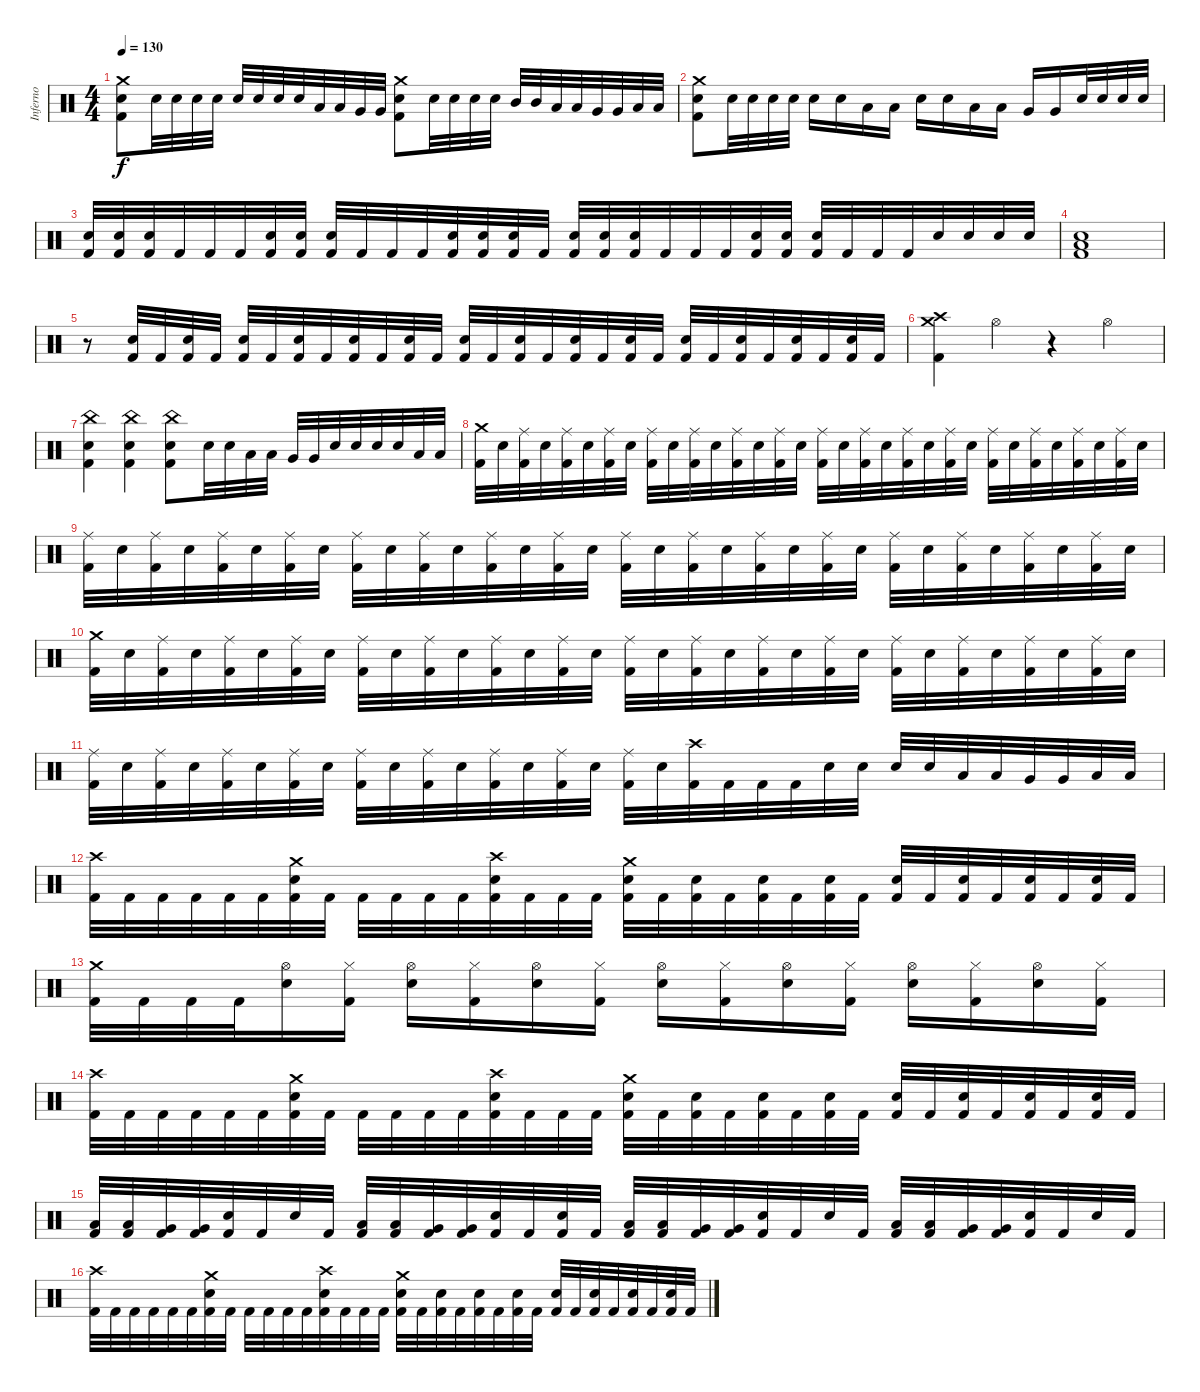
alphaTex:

\track ("Inferno" "Inferno") {instrument percussion}
\staff {score}
\articulation defaults
\ts (4 4)
\tempo 130
\clef neutral
\ks c
("Crash medium (hit)" "Snare (hit) 2" "Kick (hit) 2").8{dy f} "Snare (hit) 2".32 "Snare (hit) 2".32 "Snare (hit) 2".32 "Snare (hit) 2".32 "Snare (hit) 2".32 "Snare (hit) 2".32 "Snare (hit) 2".32 "Snare (hit) 2".32 "Low Tom (hit)".32 "Low Tom (hit)".32 "Very Low Tom (hit)".32 "Very Low Tom (hit)".32 ("Crash medium (hit)" "Snare (hit) 2" "Kick (hit) 2").8 "Snare (hit) 2".32 "Snare (hit) 2".32 "Snare (hit) 2".32 "Snare (hit) 2".32 "Mid Tom (hit)".32 "Mid Tom (hit)".32 "Low Tom (hit)".32 "Low Tom (hit)".32 "Very Low Tom (hit)".32 "Very Low Tom (hit)".32 "Low Floor Tom (hit)".32 "Low Floor Tom (hit)".32 |
("Crash medium (hit)" "Snare (hit) 2" "Kick (hit) 2").8 "Snare (hit) 2".32 "Snare (hit) 2".32 "Snare (hit) 2".32 "Snare (hit) 2".32 "Snare (hit) 2".16 "Snare (hit) 2".16 "Low Tom (hit)".16 "Low Tom (hit)".16 "Snare (hit) 2".16 "Snare (hit) 2".16 "Low Tom (hit)".16 "Low Tom (hit)".16 "Very Low Tom (hit)".16 "Very Low Tom (hit)".16 "Snare (hit) 2".32 "Snare (hit) 2".32 "Snare (hit) 2".32 "Snare (hit) 2".32 |
("Snare (hit) 2" "Kick (hit) 2").32 ("Snare (hit) 2" "Kick (hit) 2").32 ("Snare (hit) 2" "Kick (hit) 2").32 "Kick (hit) 2".32 "Kick (hit) 2".32 "Kick (hit) 2".32 ("Snare (hit) 2" "Kick (hit) 2").32 ("Snare (hit) 2" "Kick (hit) 2").32 ("Snare (hit) 2" "Kick (hit) 2").32 "Kick (hit) 2".32 "Kick (hit) 2".32 "Kick (hit) 2".32 ("Snare (hit) 2" "Kick (hit) 2").32 ("Snare (hit) 2" "Kick (hit) 2").32 ("Snare (hit) 2" "Kick (hit) 2").32 "Kick (hit) 2".32 ("Snare (hit) 2" "Kick (hit) 2").32 ("Snare (hit) 2" "Kick (hit) 2").32 ("Snare (hit) 2" "Kick (hit) 2").32 "Kick (hit) 2".32 "Kick (hit) 2".32 "Kick (hit) 2".32 ("Snare (hit) 2" "Kick (hit) 2").32 ("Snare (hit) 2" "Kick (hit) 2").32 ("Snare (hit) 2" "Kick (hit) 2").32 "Kick (hit) 2".32 "Kick (hit) 2".32 "Kick (hit) 2".32 "Snare (hit) 2".32 "Snare (hit) 2".32 "Snare (hit) 2".32 "Snare (hit) 2".32 |
("Low Floor Tom (hit)" "Snare (hit) 2" "Kick (hit) 2").1 |
r.8 ("Snare (hit) 2" "Kick (hit) 2").32 "Kick (hit) 2".32 ("Snare (hit) 2" "Kick (hit) 2").32 "Kick (hit) 2".32 ("Snare (hit) 2" "Kick (hit) 2").32 "Kick (hit) 2".32 ("Snare (hit) 2" "Kick (hit) 2").32 "Kick (hit) 2".32 ("Snare (hit) 2" "Kick (hit) 2").32 "Kick (hit) 2".32 ("Snare (hit) 2" "Kick (hit) 2").32 "Kick (hit) 2".32 ("Snare (hit) 2" "Kick (hit) 2").32 "Kick (hit) 2".32 ("Snare (hit) 2" "Kick (hit) 2").32 "Kick (hit) 2".32 ("Snare (hit) 2" "Kick (hit) 2").32 "Kick (hit) 2".32 ("Snare (hit) 2" "Kick (hit) 2").32 "Kick (hit) 2".32 ("Snare (hit) 2" "Kick (hit) 2").32 "Kick (hit) 2".32 ("Snare (hit) 2" "Kick (hit) 2").32 "Kick (hit) 2".32 ("Snare (hit) 2" "Kick (hit) 2").32 "Kick (hit) 2".32 ("Snare (hit) 2" "Kick (hit) 2").32 "Kick (hit) 2".32 |
("Crash high (hit)" "Crash medium (hit)" "Kick (hit) 2").4 "Hi-Hat (open)".4 r.4 "Hi-Hat (open)".4 |
("China (hit)" "Snare (hit) 2" "Kick (hit) 2").4 ("China (hit)" "Snare (hit) 2" "Kick (hit) 2").4 ("China (hit)" "Snare (hit) 2" "Kick (hit) 2").8 "Snare (hit) 2".32 "Snare (hit) 2".32 "Low Tom (hit)".32 "Low Tom (hit)".32 "Very Low Tom (hit)".32 "Very Low Tom (hit)".32 "Snare (hit) 2".32 "Snare (hit) 2".32 "Snare (hit) 2".32 "Snare (hit) 2".32 "Low Floor Tom (hit)".32 "Low Floor Tom (hit)".32 |
("Crash medium (hit)" "Kick (hit) 2").32 "Snare (hit) 2".32 ("Ride (middle)" "Kick (hit) 2").32 "Snare (hit) 2".32 ("Ride (middle)" "Kick (hit) 2").32 "Snare (hit) 2".32 ("Ride (middle)" "Kick (hit) 2").32 "Snare (hit) 2".32 ("Ride (middle)" "Kick (hit) 2").32 "Snare (hit) 2".32 ("Ride (middle)" "Kick (hit) 2").32 "Snare (hit) 2".32 ("Ride (middle)" "Kick (hit) 2").32 "Snare (hit) 2".32 ("Ride (middle)" "Kick (hit) 2").32 "Snare (hit) 2".32 ("Ride (middle)" "Kick (hit) 2").32 "Snare (hit) 2".32 ("Ride (middle)" "Kick (hit) 2").32 "Snare (hit) 2".32 ("Ride (middle)" "Kick (hit) 2").32 "Snare (hit) 2".32 ("Ride (middle)" "Kick (hit) 2").32 "Snare (hit) 2".32 ("Ride (middle)" "Kick (hit) 2").32 "Snare (hit) 2".32 ("Ride (middle)" "Kick (hit) 2").32 "Snare (hit) 2".32 ("Ride (middle)" "Kick (hit) 2").32 "Snare (hit) 2".32 ("Ride (middle)" "Kick (hit) 2").32 "Snare (hit) 2".32 |
("Ride (middle)" "Kick (hit) 2").32 "Snare (hit) 2".32 ("Ride (middle)" "Kick (hit) 2").32 "Snare (hit) 2".32 ("Ride (middle)" "Kick (hit) 2").32 "Snare (hit) 2".32 ("Ride (middle)" "Kick (hit) 2").32 "Snare (hit) 2".32 ("Ride (middle)" "Kick (hit) 2").32 "Snare (hit) 2".32 ("Ride (middle)" "Kick (hit) 2").32 "Snare (hit) 2".32 ("Ride (middle)" "Kick (hit) 2").32 "Snare (hit) 2".32 ("Ride (middle)" "Kick (hit) 2").32 "Snare (hit) 2".32 ("Ride (middle)" "Kick (hit) 2").32 "Snare (hit) 2".32 ("Ride (middle)" "Kick (hit) 2").32 "Snare (hit) 2".32 ("Ride (middle)" "Kick (hit) 2").32 "Snare (hit) 2".32 ("Ride (middle)" "Kick (hit) 2").32 "Snare (hit) 2".32 ("Ride (middle)" "Kick (hit) 2").32 "Snare (hit) 2".32 ("Ride (middle)" "Kick (hit) 2").32 "Snare (hit) 2".32 ("Ride (middle)" "Kick (hit) 2").32 "Snare (hit) 2".32 ("Ride (middle)" "Kick (hit) 2").32 "Snare (hit) 2".32 |
("Crash medium (hit)" "Kick (hit) 2").32 "Snare (hit) 2".32 ("Ride (middle)" "Kick (hit) 2").32 "Snare (hit) 2".32 ("Ride (middle)" "Kick (hit) 2").32 "Snare (hit) 2".32 ("Ride (middle)" "Kick (hit) 2").32 "Snare (hit) 2".32 ("Ride (middle)" "Kick (hit) 2").32 "Snare (hit) 2".32 ("Ride (middle)" "Kick (hit) 2").32 "Snare (hit) 2".32 ("Ride (middle)" "Kick (hit) 2").32 "Snare (hit) 2".32 ("Ride (middle)" "Kick (hit) 2").32 "Snare (hit) 2".32 ("Ride (middle)" "Kick (hit) 2").32 "Snare (hit) 2".32 ("Ride (middle)" "Kick (hit) 2").32 "Snare (hit) 2".32 ("Ride (middle)" "Kick (hit) 2").32 "Snare (hit) 2".32 ("Ride (middle)" "Kick (hit) 2").32 "Snare (hit) 2".32 ("Ride (middle)" "Kick (hit) 2").32 "Snare (hit) 2".32 ("Ride (middle)" "Kick (hit) 2").32 "Snare (hit) 2".32 ("Ride (middle)" "Kick (hit) 2").32 "Snare (hit) 2".32 ("Ride (middle)" "Kick (hit) 2").32 "Snare (hit) 2".32 |
("Ride (middle)" "Kick (hit) 2").32 "Snare (hit) 2".32 ("Ride (middle)" "Kick (hit) 2").32 "Snare (hit) 2".32 ("Ride (middle)" "Kick (hit) 2").32 "Snare (hit) 2".32 ("Ride (middle)" "Kick (hit) 2").32 "Snare (hit) 2".32 ("Ride (middle)" "Kick (hit) 2").32 "Snare (hit) 2".32 ("Ride (middle)" "Kick (hit) 2").32 "Snare (hit) 2".32 ("Ride (middle)" "Kick (hit) 2").32 "Snare (hit) 2".32 ("Ride (middle)" "Kick (hit) 2").32 "Snare (hit) 2".32 ("Ride (middle)" "Kick (hit) 2").32 "Snare (hit) 2".32 ("Crash high (hit)" "Kick (hit) 2").32 "Kick (hit) 2".32 "Kick (hit) 2".32 "Kick (hit) 2".32 "Snare (hit) 2".32 "Snare (hit) 2".32 "Snare (hit) 2".32 "Snare (hit) 2".32 "Low Tom (hit)".32 "Low Tom (hit)".32 "Very Low Tom (hit)".32 "Very Low Tom (hit)".32 "Low Floor Tom (hit)".32 "Low Floor Tom (hit)".32 |
("Crash high (hit)" "Kick (hit) 2").32 "Kick (hit) 2".32 "Kick (hit) 2".32 "Kick (hit) 2".32 "Kick (hit) 2".32 "Kick (hit) 2".32 ("Crash medium (hit)" "Snare (hit) 2" "Kick (hit) 2").32 "Kick (hit) 2".32 "Kick (hit) 2".32 "Kick (hit) 2".32 "Kick (hit) 2".32 "Kick (hit) 2".32 ("Crash high (hit)" "Snare (hit) 2" "Kick (hit) 2").32 "Kick (hit) 2".32 "Kick (hit) 2".32 "Kick (hit) 2".32 ("Crash medium (hit)" "Snare (hit) 2" "Kick (hit) 2").32 "Kick (hit) 2".32 ("Snare (hit) 2" "Kick (hit) 2").32 "Kick (hit) 2".32 ("Snare (hit) 2" "Kick (hit) 2").32 "Kick (hit) 2".32 ("Snare (hit) 2" "Kick (hit) 2").32 "Kick (hit) 2".32 ("Snare (hit) 2" "Kick (hit) 2").32 "Kick (hit) 2".32 ("Snare (hit) 2" "Kick (hit) 2").32 "Kick (hit) 2".32 ("Snare (hit) 2" "Kick (hit) 2").32 "Kick (hit) 2".32 ("Snare (hit) 2" "Kick (hit) 2").32 "Kick (hit) 2".32 |
("Crash medium (hit)" "Kick (hit) 2").32 "Kick (hit) 2".32 "Kick (hit) 2".32 "Kick (hit) 2".32 ("Hi-Hat (open)" "Snare (hit) 2").16 ("Hi-Hat (closed)" "Kick (hit) 2").16 ("Hi-Hat (open)" "Snare (hit) 2").16 ("Hi-Hat (closed)" "Kick (hit) 2").16 ("Hi-Hat (open)" "Snare (hit) 2").16 ("Hi-Hat (closed)" "Kick (hit) 2").16 ("Hi-Hat (open)" "Snare (hit) 2").16 ("Hi-Hat (closed)" "Kick (hit) 2").16 ("Hi-Hat (open)" "Snare (hit) 2").16 ("Hi-Hat (closed)" "Kick (hit) 2").16 ("Hi-Hat (open)" "Snare (hit) 2").16 ("Hi-Hat (closed)" "Kick (hit) 2").16 ("Hi-Hat (open)" "Snare (hit) 2").16 ("Hi-Hat (closed)" "Kick (hit) 2").16 |
("Crash high (hit)" "Kick (hit) 2").32 "Kick (hit) 2".32 "Kick (hit) 2".32 "Kick (hit) 2".32 "Kick (hit) 2".32 "Kick (hit) 2".32 ("Crash medium (hit)" "Snare (hit) 2" "Kick (hit) 2").32 "Kick (hit) 2".32 "Kick (hit) 2".32 "Kick (hit) 2".32 "Kick (hit) 2".32 "Kick (hit) 2".32 ("Crash high (hit)" "Snare (hit) 2" "Kick (hit) 2").32 "Kick (hit) 2".32 "Kick (hit) 2".32 "Kick (hit) 2".32 ("Crash medium (hit)" "Snare (hit) 2" "Kick (hit) 2").32 "Kick (hit) 2".32 ("Snare (hit) 2" "Kick (hit) 2").32 "Kick (hit) 2".32 ("Snare (hit) 2" "Kick (hit) 2").32 "Kick (hit) 2".32 ("Snare (hit) 2" "Kick (hit) 2").32 "Kick (hit) 2".32 ("Snare (hit) 2" "Kick (hit) 2").32 "Kick (hit) 2".32 ("Snare (hit) 2" "Kick (hit) 2").32 "Kick (hit) 2".32 ("Snare (hit) 2" "Kick (hit) 2").32 "Kick (hit) 2".32 ("Snare (hit) 2" "Kick (hit) 2").32 "Kick (hit) 2".32 |
("Low Tom (hit)" "Kick (hit) 2").32 ("Low Tom (hit)" "Kick (hit) 2").32 ("Very Low Tom (hit)" "Kick (hit) 2").32 ("Very Low Tom (hit)" "Kick (hit) 2").32 ("Snare (hit) 2" "Kick (hit) 2").32 "Kick (hit) 2".32 "Snare (hit) 2".32 "Kick (hit) 2".32 ("Low Tom (hit)" "Kick (hit) 2").32 ("Low Tom (hit)" "Kick (hit) 2").32 ("Very Low Tom (hit)" "Kick (hit) 2").32 ("Very Low Tom (hit)" "Kick (hit) 2").32 ("Snare (hit) 2" "Kick (hit) 2").32 "Kick (hit) 2".32 ("Snare (hit) 2" "Kick (hit) 2").32 "Kick (hit) 2".32 ("Low Tom (hit)" "Kick (hit) 2").32 ("Low Tom (hit)" "Kick (hit) 2").32 ("Very Low Tom (hit)" "Kick (hit) 2").32 ("Very Low Tom (hit)" "Kick (hit) 2").32 ("Snare (hit) 2" "Kick (hit) 2").32 "Kick (hit) 2".32 "Snare (hit) 2".32 "Kick (hit) 2".32 ("Low Tom (hit)" "Kick (hit) 2").32 ("Low Tom (hit)" "Kick (hit) 2").32 ("Very Low Tom (hit)" "Kick (hit) 2").32 ("Very Low Tom (hit)" "Kick (hit) 2").32 ("Snare (hit) 2" "Kick (hit) 2").32 "Kick (hit) 2".32 "Snare (hit) 2".32 "Kick (hit) 2".32 |
("Crash high (hit)" "Kick (hit) 2").32 "Kick (hit) 2".32 "Kick (hit) 2".32 "Kick (hit) 2".32 "Kick (hit) 2".32 "Kick (hit) 2".32 ("Crash medium (hit)" "Snare (hit) 2" "Kick (hit) 2").32 "Kick (hit) 2".32 "Kick (hit) 2".32 "Kick (hit) 2".32 "Kick (hit) 2".32 "Kick (hit) 2".32 ("Crash high (hit)" "Snare (hit) 2" "Kick (hit) 2").32 "Kick (hit) 2".32 "Kick (hit) 2".32 "Kick (hit) 2".32 ("Crash medium (hit)" "Snare (hit) 2" "Kick (hit) 2").32 "Kick (hit) 2".32 ("Snare (hit) 2" "Kick (hit) 2").32 "Kick (hit) 2".32 ("Snare (hit) 2" "Kick (hit) 2").32 "Kick (hit) 2".32 ("Snare (hit) 2" "Kick (hit) 2").32 "Kick (hit) 2".32 ("Snare (hit) 2" "Kick (hit) 2").32 "Kick (hit) 2".32 ("Snare (hit) 2" "Kick (hit) 2").32 "Kick (hit) 2".32 ("Snare (hit) 2" "Kick (hit) 2").32 "Kick (hit) 2".32 ("Snare (hit) 2" "Kick (hit) 2").32 "Kick (hit) 2".32
